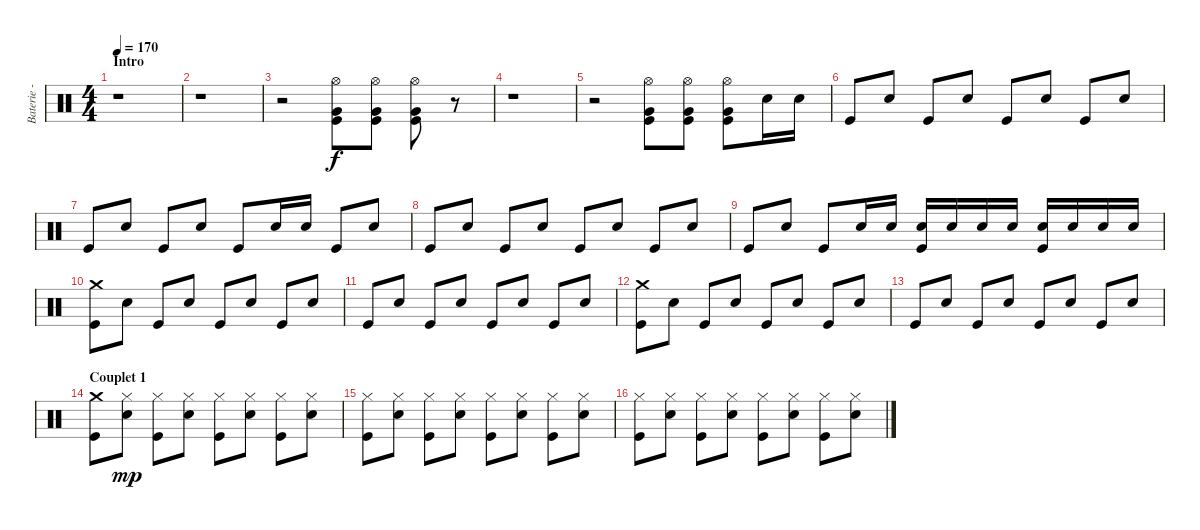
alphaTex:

\track ("Baterie - Guillaume" "Baterie - ") {instrument percussion}
\staff {score}
\articulation defaults
\ts (4 4)
\section ("" "Intro")
\tempo 170
\clef neutral
\ks c
r.1{dy f} |
r.1 |
r.2 ("Hi-Hat (open)" "Very Low Tom (hit)" "Kick (hit)").8 ("Hi-Hat (open)" "Very Low Tom (hit)" "Kick (hit)").8 ("Hi-Hat (open)" "Very Low Tom (hit)" "Kick (hit)").8 r.8 |
r.1 |
r.2 ("Hi-Hat (open)" "Very Low Tom (hit)" "Kick (hit)").8 ("Hi-Hat (open)" "Very Low Tom (hit)" "Kick (hit)").8 ("Hi-Hat (open)" "Very Low Tom (hit)" "Kick (hit)").8 "Electric Snare (hit)".16 "Electric Snare (hit)".16 |
"Kick (hit)".8 "Electric Snare (hit)".8 "Kick (hit)".8 "Electric Snare (hit)".8 "Kick (hit)".8 "Electric Snare (hit)".8 "Kick (hit)".8 "Electric Snare (hit)".8 |
"Kick (hit)".8 "Electric Snare (hit)".8 "Kick (hit)".8 "Electric Snare (hit)".8 "Kick (hit)".8 "Electric Snare (hit)".16 "Electric Snare (hit)".16 "Kick (hit)".8 "Electric Snare (hit)".8 |
"Kick (hit)".8 "Electric Snare (hit)".8 "Kick (hit)".8 "Electric Snare (hit)".8 "Kick (hit)".8 "Electric Snare (hit)".8 "Kick (hit)".8 "Electric Snare (hit)".8 |
"Kick (hit)".8 "Electric Snare (hit)".8 "Kick (hit)".8 "Electric Snare (hit)".16 "Electric Snare (hit)".16 ("Electric Snare (hit)" "Kick (hit)").16 "Electric Snare (hit)".16 "Electric Snare (hit)".16 "Electric Snare (hit)".16 ("Electric Snare (hit)" "Kick (hit)").16 "Electric Snare (hit)".16 "Electric Snare (hit)".16 "Electric Snare (hit)".16 |
("Crash medium (hit)" "Kick (hit)").8 "Electric Snare (hit)".8 "Kick (hit)".8 "Electric Snare (hit)".8 "Kick (hit)".8 "Electric Snare (hit)".8 "Kick (hit)".8 "Electric Snare (hit)".8 |
"Kick (hit)".8 "Electric Snare (hit)".8 "Kick (hit)".8 "Electric Snare (hit)".8 "Kick (hit)".8 "Electric Snare (hit)".8 "Kick (hit)".8 "Electric Snare (hit)".8 |
("Crash medium (hit)" "Kick (hit)").8 "Electric Snare (hit)".8 "Kick (hit)".8 "Electric Snare (hit)".8 "Kick (hit)".8 "Electric Snare (hit)".8 "Kick (hit)".8 "Electric Snare (hit)".8 |
"Kick (hit)".8 "Electric Snare (hit)".8 "Kick (hit)".8 "Electric Snare (hit)".8 "Kick (hit)".8 "Electric Snare (hit)".8 "Kick (hit)".8 "Electric Snare (hit)".8 |
\section ("" "Couplet 1")
("Crash medium (hit)" "Kick (hit)").8 ("Hi-Hat (closed)" "Electric Snare (hit)").8{dy mp} ("Hi-Hat (closed)" "Kick (hit)").8 ("Hi-Hat (closed)" "Electric Snare (hit)").8 ("Hi-Hat (closed)" "Kick (hit)").8 ("Hi-Hat (closed)" "Electric Snare (hit)").8 ("Hi-Hat (closed)" "Kick (hit)").8 ("Hi-Hat (closed)" "Electric Snare (hit)").8 |
("Hi-Hat (closed)" "Kick (hit)").8 ("Hi-Hat (closed)" "Electric Snare (hit)").8 ("Hi-Hat (closed)" "Kick (hit)").8 ("Hi-Hat (closed)" "Electric Snare (hit)").8 ("Hi-Hat (closed)" "Kick (hit)").8 ("Hi-Hat (closed)" "Electric Snare (hit)").8 ("Hi-Hat (closed)" "Kick (hit)").8 ("Hi-Hat (closed)" "Electric Snare (hit)").8 |
("Hi-Hat (closed)" "Kick (hit)").8 ("Hi-Hat (closed)" "Electric Snare (hit)").8 ("Hi-Hat (closed)" "Kick (hit)").8 ("Hi-Hat (closed)" "Electric Snare (hit)").8 ("Hi-Hat (closed)" "Kick (hit)").8 ("Hi-Hat (closed)" "Electric Snare (hit)").8 ("Hi-Hat (closed)" "Kick (hit)").8 ("Hi-Hat (closed)" "Electric Snare (hit)").8
